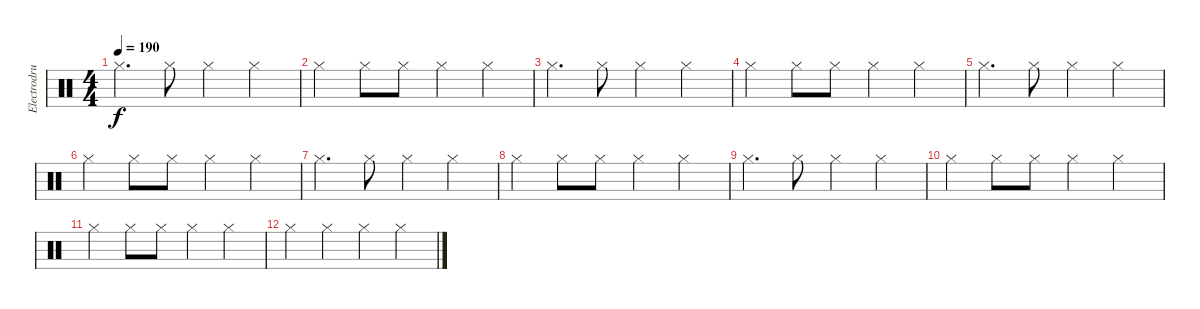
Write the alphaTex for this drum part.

\track ("Electrodrums1" "Electrodru") {instrument percussion}
\staff {score}
\articulation defaults
\ts (4 4)
\tempo 190
\clef neutral
\ks c "Hi-Hat (closed)".4{d dy f} "Hi-Hat (closed)".8 "Hi-Hat (closed)".4 "Hi-Hat (closed)".4
|
"Hi-Hat (closed)".4 "Hi-Hat (closed)".8 "Hi-Hat (closed)".8 "Hi-Hat (closed)".4 "Hi-Hat (closed)".4 |
"Hi-Hat (closed)".4{d} "Hi-Hat (closed)".8 "Hi-Hat (closed)".4 "Hi-Hat (closed)".4 |
"Hi-Hat (closed)".4 "Hi-Hat (closed)".8 "Hi-Hat (closed)".8 "Hi-Hat (closed)".4 "Hi-Hat (closed)".4 |
"Hi-Hat (closed)".4{d} "Hi-Hat (closed)".8 "Hi-Hat (closed)".4 "Hi-Hat (closed)".4 |
"Hi-Hat (closed)".4 "Hi-Hat (closed)".8 "Hi-Hat (closed)".8 "Hi-Hat (closed)".4 "Hi-Hat (closed)".4 |
"Hi-Hat (closed)".4{d} "Hi-Hat (closed)".8 "Hi-Hat (closed)".4 "Hi-Hat (closed)".4 |
"Hi-Hat (closed)".4 "Hi-Hat (closed)".8 "Hi-Hat (closed)".8 "Hi-Hat (closed)".4 "Hi-Hat (closed)".4 |
"Hi-Hat (closed)".4{d} "Hi-Hat (closed)".8 "Hi-Hat (closed)".4 "Hi-Hat (closed)".4 |
"Hi-Hat (closed)".4 "Hi-Hat (closed)".8 "Hi-Hat (closed)".8 "Hi-Hat (closed)".4 "Hi-Hat (closed)".4 |
"Hi-Hat (closed)".4 "Hi-Hat (closed)".8 "Hi-Hat (closed)".8 "Hi-Hat (closed)".4 "Hi-Hat (closed)".4 |
"Hi-Hat (closed)".4 "Hi-Hat (closed)".4 "Hi-Hat (closed)".4 "Hi-Hat (closed)".4
